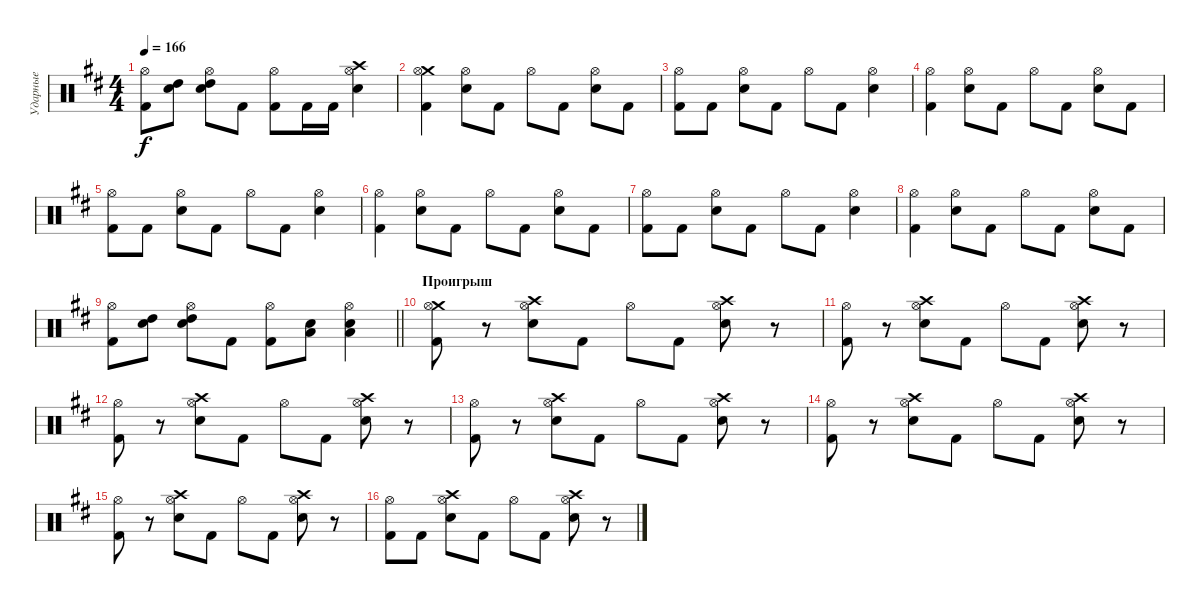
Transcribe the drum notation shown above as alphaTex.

\track ("Ударные" "Ударные") {instrument percussion}
\staff {score}
\articulation defaults
\ts (4 4)
\tempo 166
\clef neutral
\ks bminor
("Kick (hit) 2" "Hi-Hat (open)").8{dy f} ("High Tom (hit)" "Electric Snare (hit)").8 ("High Tom (hit)" "Electric Snare (hit)" "Hi-Hat (open)").8 "Kick (hit) 2".8 ("Kick (hit) 2" "Hi-Hat (open)").8 "Kick (hit) 2".16 "Kick (hit) 2".16 ("Crash high (hit)" "Electric Snare (hit)" "Hi-Hat (open)").4 |
("Crash medium (hit)" "Kick (hit) 2" "Hi-Hat (open)").4 ("Electric Snare (hit)" "Hi-Hat (open)").8 "Kick (hit) 2".8 "Hi-Hat (open)".8 "Kick (hit) 2".8 ("Electric Snare (hit)" "Hi-Hat (open)").8 "Kick (hit) 2".8 |
("Kick (hit) 2" "Hi-Hat (open)").8 "Kick (hit) 2".8 ("Electric Snare (hit)" "Hi-Hat (open)").8 "Kick (hit) 2".8 "Hi-Hat (open)".8 "Kick (hit) 2".8 ("Electric Snare (hit)" "Hi-Hat (open)").4 |
("Kick (hit) 2" "Hi-Hat (open)").4 ("Electric Snare (hit)" "Hi-Hat (open)").8 "Kick (hit) 2".8 "Hi-Hat (open)".8 "Kick (hit) 2".8 ("Electric Snare (hit)" "Hi-Hat (open)").8 "Kick (hit) 2".8 |
("Kick (hit) 2" "Hi-Hat (open)").8 "Kick (hit) 2".8 ("Electric Snare (hit)" "Hi-Hat (open)").8 "Kick (hit) 2".8 "Hi-Hat (open)".8 "Kick (hit) 2".8 ("Electric Snare (hit)" "Hi-Hat (open)").4 |
("Kick (hit) 2" "Hi-Hat (open)").4 ("Electric Snare (hit)" "Hi-Hat (open)").8 "Kick (hit) 2".8 "Hi-Hat (open)".8 "Kick (hit) 2".8 ("Electric Snare (hit)" "Hi-Hat (open)").8 "Kick (hit) 2".8 |
("Kick (hit) 2" "Hi-Hat (open)").8 "Kick (hit) 2".8 ("Electric Snare (hit)" "Hi-Hat (open)").8 "Kick (hit) 2".8 "Hi-Hat (open)".8 "Kick (hit) 2".8 ("Electric Snare (hit)" "Hi-Hat (open)").4 |
("Kick (hit) 2" "Hi-Hat (open)").4 ("Electric Snare (hit)" "Hi-Hat (open)").8 "Kick (hit) 2".8 "Hi-Hat (open)".8 "Kick (hit) 2".8 ("Electric Snare (hit)" "Hi-Hat (open)").8 "Kick (hit) 2".8 |
\barLineRight lightlight
("Kick (hit) 2" "Hi-Hat (open)").8 ("High Tom (hit)" "Electric Snare (hit)").8 ("High Tom (hit)" "Electric Snare (hit)" "Hi-Hat (open)").8 "Kick (hit) 2".8 ("Kick (hit) 2" "Hi-Hat (open)").8 ("Low Tom (hit)" "Electric Snare (hit)").8 ("Low Tom (hit)" "Electric Snare (hit)" "Hi-Hat (open)").4 |
\section ("" "Проигрыш")
("Crash medium (hit)" "Kick (hit) 2" "Hi-Hat (open)").8 r.8 ("Crash high (hit)" "Electric Snare (hit)" "Hi-Hat (open)").8 "Kick (hit) 2".8 "Hi-Hat (open)".8 "Kick (hit) 2".8 ("Crash high (hit)" "Electric Snare (hit)" "Hi-Hat (open)").8 r.8 |
("Kick (hit) 2" "Hi-Hat (open)").8 r.8 ("Crash high (hit)" "Electric Snare (hit)" "Hi-Hat (open)").8 "Kick (hit) 2".8 "Hi-Hat (open)".8 "Kick (hit) 2".8 ("Crash high (hit)" "Electric Snare (hit)" "Hi-Hat (open)").8 r.8 |
("Kick (hit) 2" "Hi-Hat (open)").8 r.8 ("Crash high (hit)" "Electric Snare (hit)" "Hi-Hat (open)").8 "Kick (hit) 2".8 "Hi-Hat (open)".8 "Kick (hit) 2".8 ("Crash high (hit)" "Electric Snare (hit)" "Hi-Hat (open)").8 r.8 |
("Kick (hit) 2" "Hi-Hat (open)").8 r.8 ("Crash high (hit)" "Electric Snare (hit)" "Hi-Hat (open)").8 "Kick (hit) 2".8 "Hi-Hat (open)".8 "Kick (hit) 2".8 ("Crash high (hit)" "Electric Snare (hit)" "Hi-Hat (open)").8 r.8 |
("Kick (hit) 2" "Hi-Hat (open)").8 r.8 ("Crash high (hit)" "Electric Snare (hit)" "Hi-Hat (open)").8 "Kick (hit) 2".8 "Hi-Hat (open)".8 "Kick (hit) 2".8 ("Crash high (hit)" "Electric Snare (hit)" "Hi-Hat (open)").8 r.8 |
("Kick (hit) 2" "Hi-Hat (open)").8 r.8 ("Crash high (hit)" "Electric Snare (hit)" "Hi-Hat (open)").8 "Kick (hit) 2".8 "Hi-Hat (open)".8 "Kick (hit) 2".8 ("Crash high (hit)" "Electric Snare (hit)" "Hi-Hat (open)").8 r.8 |
("Kick (hit) 2" "Hi-Hat (open)").8 "Kick (hit) 2".8 ("Crash high (hit)" "Electric Snare (hit)" "Hi-Hat (open)").8 "Kick (hit) 2".8 "Hi-Hat (open)".8 "Kick (hit) 2".8 ("Crash high (hit)" "Electric Snare (hit)" "Hi-Hat (open)").8 r.8
